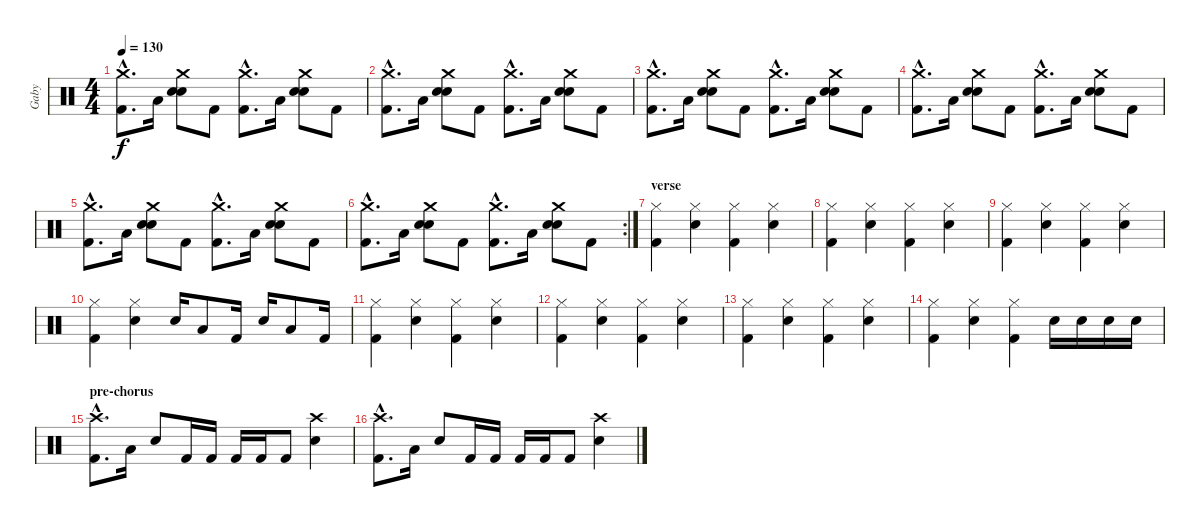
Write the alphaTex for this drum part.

\track ("Gaby" "Gaby") {instrument percussion}
\staff {score}
\articulation defaults
\ts (4 4)
\tempo 130
\clef neutral
\ks c
("Crash medium (hit)"{hac} "Kick (hit) 2"{hac}).8{d dy f} "Low Floor Tom (hit)".16 ("Crash medium (hit)" "Electric Snare (hit)" "Electric Snare (hit)").8 "Kick (hit) 2".8 ("Crash medium (hit)"{hac} "Kick (hit) 2"{hac}).8{d} "Low Floor Tom (hit)".16 ("Crash medium (hit)" "Electric Snare (hit)" "Electric Snare (hit)").8 "Kick (hit) 2".8 |
("Crash medium (hit)"{hac} "Kick (hit) 2"{hac}).8{d} "Low Floor Tom (hit)".16 ("Crash medium (hit)" "Electric Snare (hit)" "Electric Snare (hit)").8 "Kick (hit) 2".8 ("Crash medium (hit)"{hac} "Kick (hit) 2"{hac}).8{d} "Low Floor Tom (hit)".16 ("Crash medium (hit)" "Electric Snare (hit)" "Electric Snare (hit)").8 "Kick (hit) 2".8 |
("Crash medium (hit)"{hac} "Kick (hit) 2"{hac}).8{d} "Low Floor Tom (hit)".16 ("Crash medium (hit)" "Electric Snare (hit)" "Electric Snare (hit)").8 "Kick (hit) 2".8 ("Crash medium (hit)"{hac} "Kick (hit) 2"{hac}).8{d} "Low Floor Tom (hit)".16 ("Crash medium (hit)" "Electric Snare (hit)" "Electric Snare (hit)").8 "Kick (hit) 2".8 |
("Crash medium (hit)"{hac} "Kick (hit) 2"{hac}).8{d} "Low Floor Tom (hit)".16 ("Crash medium (hit)" "Electric Snare (hit)" "Electric Snare (hit)").8 "Kick (hit) 2".8 ("Crash medium (hit)"{hac} "Kick (hit) 2"{hac}).8{d} "Low Floor Tom (hit)".16 ("Crash medium (hit)" "Electric Snare (hit)" "Electric Snare (hit)").8 "Kick (hit) 2".8 |
("Crash medium (hit)"{hac} "Kick (hit) 2"{hac}).8{d} "Low Floor Tom (hit)".16 ("Crash medium (hit)" "Electric Snare (hit)" "Electric Snare (hit)").8 "Kick (hit) 2".8 ("Crash medium (hit)"{hac} "Kick (hit) 2"{hac}).8{d} "Low Floor Tom (hit)".16 ("Crash medium (hit)" "Electric Snare (hit)" "Electric Snare (hit)").8 "Kick (hit) 2".8 |
\rc 2
("Crash medium (hit)"{hac} "Kick (hit) 2"{hac}).8{d} "Low Floor Tom (hit)".16 ("Crash medium (hit)" "Electric Snare (hit)" "Electric Snare (hit)").8 "Kick (hit) 2".8 ("Crash medium (hit)"{hac} "Kick (hit) 2"{hac}).8{d} "Low Floor Tom (hit)".16 ("Crash medium (hit)" "Electric Snare (hit)" "Electric Snare (hit)").8 "Kick (hit) 2".8 |
\section ("" "verse")
("Hi-Hat (closed)" "Kick (hit) 2").4 ("Hi-Hat (closed)" "Electric Snare (hit)").4 ("Hi-Hat (closed)" "Kick (hit) 2").4 ("Hi-Hat (closed)" "Electric Snare (hit)").4 |
("Hi-Hat (closed)" "Kick (hit) 2").4 ("Hi-Hat (closed)" "Electric Snare (hit)").4 ("Hi-Hat (closed)" "Kick (hit) 2").4 ("Hi-Hat (closed)" "Electric Snare (hit)").4 |
("Hi-Hat (closed)" "Kick (hit) 2").4 ("Hi-Hat (closed)" "Electric Snare (hit)").4 ("Hi-Hat (closed)" "Kick (hit) 2").4 ("Hi-Hat (closed)" "Electric Snare (hit)").4 |
("Hi-Hat (closed)" "Kick (hit) 2").4 ("Hi-Hat (closed)" "Electric Snare (hit)").4 "Electric Snare (hit)".16 "Low Floor Tom (hit)".8 "Kick (hit) 2".16 "Electric Snare (hit)".16 "Low Floor Tom (hit)".8 "Kick (hit) 2".16 |
("Hi-Hat (closed)" "Kick (hit) 2").4 ("Hi-Hat (closed)" "Electric Snare (hit)").4 ("Hi-Hat (closed)" "Kick (hit) 2").4 ("Hi-Hat (closed)" "Electric Snare (hit)").4 |
("Hi-Hat (closed)" "Kick (hit) 2").4 ("Hi-Hat (closed)" "Electric Snare (hit)").4 ("Hi-Hat (closed)" "Kick (hit) 2").4 ("Hi-Hat (closed)" "Electric Snare (hit)").4 |
("Hi-Hat (closed)" "Kick (hit) 2").4 ("Hi-Hat (closed)" "Electric Snare (hit)").4 ("Hi-Hat (closed)" "Kick (hit) 2").4 ("Hi-Hat (closed)" "Electric Snare (hit)").4 |
("Hi-Hat (closed)" "Kick (hit) 2").4 ("Hi-Hat (closed)" "Electric Snare (hit)").4 ("Hi-Hat (closed)" "Kick (hit) 2").4 "Electric Snare (hit)".16 "Electric Snare (hit)".16 "Electric Snare (hit)".16 "Electric Snare (hit)".16 |
\section ("" "pre-chorus")
("Crash high (hit)"{hac} "Kick (hit) 2"{hac}).8{d} "Low Floor Tom (hit)".16 "Electric Snare (hit)".8 "Kick (hit) 2".16 "Kick (hit) 2".16 "Kick (hit) 2".16 "Kick (hit) 2".16 "Kick (hit) 2".8 ("Crash high (hit)" "Electric Snare (hit)").4 |
("Crash high (hit)"{hac} "Kick (hit) 2"{hac}).8{d} "Low Floor Tom (hit)".16 "Electric Snare (hit)".8 "Kick (hit) 2".16 "Kick (hit) 2".16 "Kick (hit) 2".16 "Kick (hit) 2".16 "Kick (hit) 2".8 ("Crash high (hit)" "Electric Snare (hit)").4
